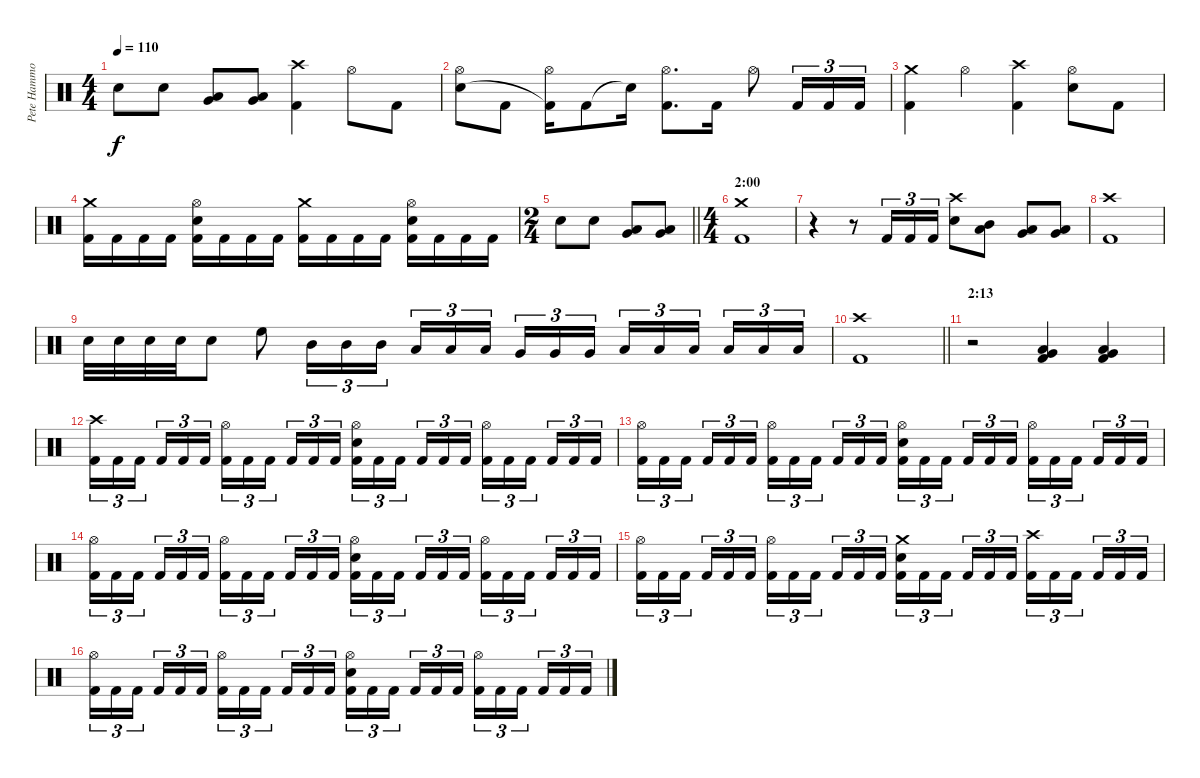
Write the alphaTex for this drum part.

\track ("Pete Hammoura" "Pete Hammo") {instrument percussion}
\staff {score}
\articulation defaults
\ts (4 4)
\tempo 110
\clef neutral
\ks c "Electric Snare (hit)".8{dy f} "Electric Snare (hit)".8
("Low Tom (hit)" "Very Low Tom (hit)").8 ("Very Low Tom (hit)" "Low Floor Tom (hit)").8 ("Crash high (hit)" "Kick (hit) 2").4 "Hi-Hat (open)".8 "Kick (hit) 2".8 |
("Hi-Hat (open)" "Electric Snare (hit)").8 "Kick (hit) 2".8 ("Hi-Hat (open)" "Kick (hit) 2"{t}).16 "Kick (hit) 2".8 "Snare (hit)"{t}.16 ("Hi-Hat (open)" "Kick (hit) 2").8{d} "Kick (hit) 2".16 "Hi-Hat (open)".8 "Kick (hit) 2".16{tu (3 2)} "Kick (hit) 2".16{tu (3 2)} "Kick (hit) 2".16{tu (3 2)} |
("Crash medium (hit)" "Kick (hit) 2").4 "Hi-Hat (open)".4 ("Crash high (hit)" "Kick (hit) 2").4 ("Hi-Hat (open)" "Electric Snare (hit)").8 "Kick (hit) 2".8 |
("Crash medium (hit)" "Kick (hit) 2").16 "Kick (hit) 2".16 "Kick (hit) 2".16 "Kick (hit) 2".16 ("Hi-Hat (open)" "Electric Snare (hit)" "Kick (hit) 2").16 "Kick (hit) 2".16 "Kick (hit) 2".16 "Kick (hit) 2".16 ("Crash medium (hit)" "Kick (hit) 2").16 "Kick (hit) 2".16 "Kick (hit) 2".16 "Kick (hit) 2".16 ("Hi-Hat (open)" "Electric Snare (hit)" "Kick (hit) 2").16 "Kick (hit) 2".16 "Kick (hit) 2".16 "Kick (hit) 2".16 |
\ts (2 4)
\barLineRight lightlight "Electric Snare (hit)".8 "Electric Snare (hit)".8
("Low Tom (hit)" "Very Low Tom (hit)").8 ("Very Low Tom (hit)" "Low Floor Tom (hit)").8 |
\ts (4 4)
\section ("" "2:00")
("Crash medium (hit)" "Kick (hit) 2").1 |
r.4 r.8 "Kick (hit) 2".16{tu (3 2)} "Kick (hit) 2".16{tu (3 2)} "Kick (hit) 2".16{tu (3 2)} ("Crash high (hit)" "Electric Snare (hit)").8 ("Mid Tom (hit)" "Low Tom (hit)").8 ("Low Tom (hit)" "Very Low Tom (hit)").8 ("Very Low Tom (hit)" "Low Floor Tom (hit)").8 |
("Crash high (hit)" "Kick (hit) 2").1 |
"Electric Snare (hit)".32 "Electric Snare (hit)".32 "Electric Snare (hit)".32 "Electric Snare (hit)".32 "Electric Snare (hit)".8 "High Floor Tom (hit)".8 "Mid Tom (hit)".16{tu (3 2)} "Mid Tom (hit)".16{tu (3 2)} "Mid Tom (hit)".16{tu (3 2)} "Low Tom (hit)".16{tu (3 2)} "Low Tom (hit)".16{tu (3 2)} "Low Tom (hit)".16{tu (3 2) beam splitsecondary} "Very Low Tom (hit)".16{tu (3 2)} "Very Low Tom (hit)".16{tu (3 2)} "Very Low Tom (hit)".16{tu (3 2)} "Low Floor Tom (hit)".16{tu (3 2)} "Low Floor Tom (hit)".16{tu (3 2)} "Low Floor Tom (hit)".16{tu (3 2) beam splitsecondary} "Low Floor Tom (hit)".16{tu (3 2)} "Low Floor Tom (hit)".16{tu (3 2)} "Low Floor Tom (hit)".16{tu (3 2)} |
\barLineRight lightlight
("Crash high (hit)" "Kick (hit) 2").1 |
\section ("" "2:13")
r.2 ("Low Tom (hit)" "Very Low Tom (hit)" "Kick (hit) 2").4 ("Very Low Tom (hit)" "Low Floor Tom (hit)" "Kick (hit) 2").4 |
("Crash high (hit)" "Kick (hit) 2").16{tu (3 2)} "Kick (hit) 2".16{tu (3 2)} "Kick (hit) 2".16{tu (3 2) beam splitsecondary} "Kick (hit) 2".16{tu (3 2)} "Kick (hit) 2".16{tu (3 2)} "Kick (hit) 2".16{tu (3 2)} ("Hi-Hat (open)" "Kick (hit) 2").16{tu (3 2)} "Kick (hit) 2".16{tu (3 2)} "Kick (hit) 2".16{tu (3 2) beam splitsecondary} "Kick (hit) 2".16{tu (3 2)} "Kick (hit) 2".16{tu (3 2)} "Kick (hit) 2".16{tu (3 2)} ("Hi-Hat (open)" "Electric Snare (hit)" "Kick (hit) 2").16{tu (3 2)} "Kick (hit) 2".16{tu (3 2)} "Kick (hit) 2".16{tu (3 2) beam splitsecondary} "Kick (hit) 2".16{tu (3 2)} "Kick (hit) 2".16{tu (3 2)} "Kick (hit) 2".16{tu (3 2)} ("Hi-Hat (open)" "Kick (hit) 2").16{tu (3 2)} "Kick (hit) 2".16{tu (3 2)} "Kick (hit) 2".16{tu (3 2) beam splitsecondary} "Kick (hit) 2".16{tu (3 2)} "Kick (hit) 2".16{tu (3 2)} "Kick (hit) 2".16{tu (3 2)} |
("Hi-Hat (open)" "Kick (hit) 2").16{tu (3 2)} "Kick (hit) 2".16{tu (3 2)} "Kick (hit) 2".16{tu (3 2) beam splitsecondary} "Kick (hit) 2".16{tu (3 2)} "Kick (hit) 2".16{tu (3 2)} "Kick (hit) 2".16{tu (3 2)} ("Hi-Hat (open)" "Kick (hit) 2").16{tu (3 2)} "Kick (hit) 2".16{tu (3 2)} "Kick (hit) 2".16{tu (3 2) beam splitsecondary} "Kick (hit) 2".16{tu (3 2)} "Kick (hit) 2".16{tu (3 2)} "Kick (hit) 2".16{tu (3 2)} ("Hi-Hat (open)" "Electric Snare (hit)" "Kick (hit) 2").16{tu (3 2)} "Kick (hit) 2".16{tu (3 2)} "Kick (hit) 2".16{tu (3 2) beam splitsecondary} "Kick (hit) 2".16{tu (3 2)} "Kick (hit) 2".16{tu (3 2)} "Kick (hit) 2".16{tu (3 2)} ("Hi-Hat (open)" "Kick (hit) 2").16{tu (3 2)} "Kick (hit) 2".16{tu (3 2)} "Kick (hit) 2".16{tu (3 2) beam splitsecondary} "Kick (hit) 2".16{tu (3 2)} "Kick (hit) 2".16{tu (3 2)} "Kick (hit) 2".16{tu (3 2)} |
("Hi-Hat (open)" "Kick (hit) 2").16{tu (3 2)} "Kick (hit) 2".16{tu (3 2)} "Kick (hit) 2".16{tu (3 2) beam splitsecondary} "Kick (hit) 2".16{tu (3 2)} "Kick (hit) 2".16{tu (3 2)} "Kick (hit) 2".16{tu (3 2)} ("Hi-Hat (open)" "Kick (hit) 2").16{tu (3 2)} "Kick (hit) 2".16{tu (3 2)} "Kick (hit) 2".16{tu (3 2) beam splitsecondary} "Kick (hit) 2".16{tu (3 2)} "Kick (hit) 2".16{tu (3 2)} "Kick (hit) 2".16{tu (3 2)} ("Hi-Hat (open)" "Electric Snare (hit)" "Kick (hit) 2").16{tu (3 2)} "Kick (hit) 2".16{tu (3 2)} "Kick (hit) 2".16{tu (3 2) beam splitsecondary} "Kick (hit) 2".16{tu (3 2)} "Kick (hit) 2".16{tu (3 2)} "Kick (hit) 2".16{tu (3 2)} ("Hi-Hat (open)" "Kick (hit) 2").16{tu (3 2)} "Kick (hit) 2".16{tu (3 2)} "Kick (hit) 2".16{tu (3 2) beam splitsecondary} "Kick (hit) 2".16{tu (3 2)} "Kick (hit) 2".16{tu (3 2)} "Kick (hit) 2".16{tu (3 2)} |
("Hi-Hat (open)" "Kick (hit) 2").16{tu (3 2)} "Kick (hit) 2".16{tu (3 2)} "Kick (hit) 2".16{tu (3 2) beam splitsecondary} "Kick (hit) 2".16{tu (3 2)} "Kick (hit) 2".16{tu (3 2)} "Kick (hit) 2".16{tu (3 2)} ("Hi-Hat (open)" "Kick (hit) 2").16{tu (3 2)} "Kick (hit) 2".16{tu (3 2)} "Kick (hit) 2".16{tu (3 2) beam splitsecondary} "Kick (hit) 2".16{tu (3 2)} "Kick (hit) 2".16{tu (3 2)} "Kick (hit) 2".16{tu (3 2)} ("Crash medium (hit)" "Electric Snare (hit)" "Kick (hit) 2").16{tu (3 2)} "Kick (hit) 2".16{tu (3 2)} "Kick (hit) 2".16{tu (3 2) beam splitsecondary} "Kick (hit) 2".16{tu (3 2)} "Kick (hit) 2".16{tu (3 2)} "Kick (hit) 2".16{tu (3 2)} ("Crash high (hit)" "Kick (hit) 2").16{tu (3 2)} "Kick (hit) 2".16{tu (3 2)} "Kick (hit) 2".16{tu (3 2) beam splitsecondary} "Kick (hit) 2".16{tu (3 2)} "Kick (hit) 2".16{tu (3 2)} "Kick (hit) 2".16{tu (3 2)} |
("Hi-Hat (open)" "Kick (hit) 2").16{tu (3 2)} "Kick (hit) 2".16{tu (3 2)} "Kick (hit) 2".16{tu (3 2) beam splitsecondary} "Kick (hit) 2".16{tu (3 2)} "Kick (hit) 2".16{tu (3 2)} "Kick (hit) 2".16{tu (3 2)} ("Hi-Hat (open)" "Kick (hit) 2").16{tu (3 2)} "Kick (hit) 2".16{tu (3 2)} "Kick (hit) 2".16{tu (3 2) beam splitsecondary} "Kick (hit) 2".16{tu (3 2)} "Kick (hit) 2".16{tu (3 2)} "Kick (hit) 2".16{tu (3 2)} ("Hi-Hat (open)" "Electric Snare (hit)" "Kick (hit) 2").16{tu (3 2)} "Kick (hit) 2".16{tu (3 2)} "Kick (hit) 2".16{tu (3 2) beam splitsecondary} "Kick (hit) 2".16{tu (3 2)} "Kick (hit) 2".16{tu (3 2)} "Kick (hit) 2".16{tu (3 2)} ("Hi-Hat (open)" "Kick (hit) 2").16{tu (3 2)} "Kick (hit) 2".16{tu (3 2)} "Kick (hit) 2".16{tu (3 2) beam splitsecondary} "Kick (hit) 2".16{tu (3 2)} "Kick (hit) 2".16{tu (3 2)} "Kick (hit) 2".16{tu (3 2)}
